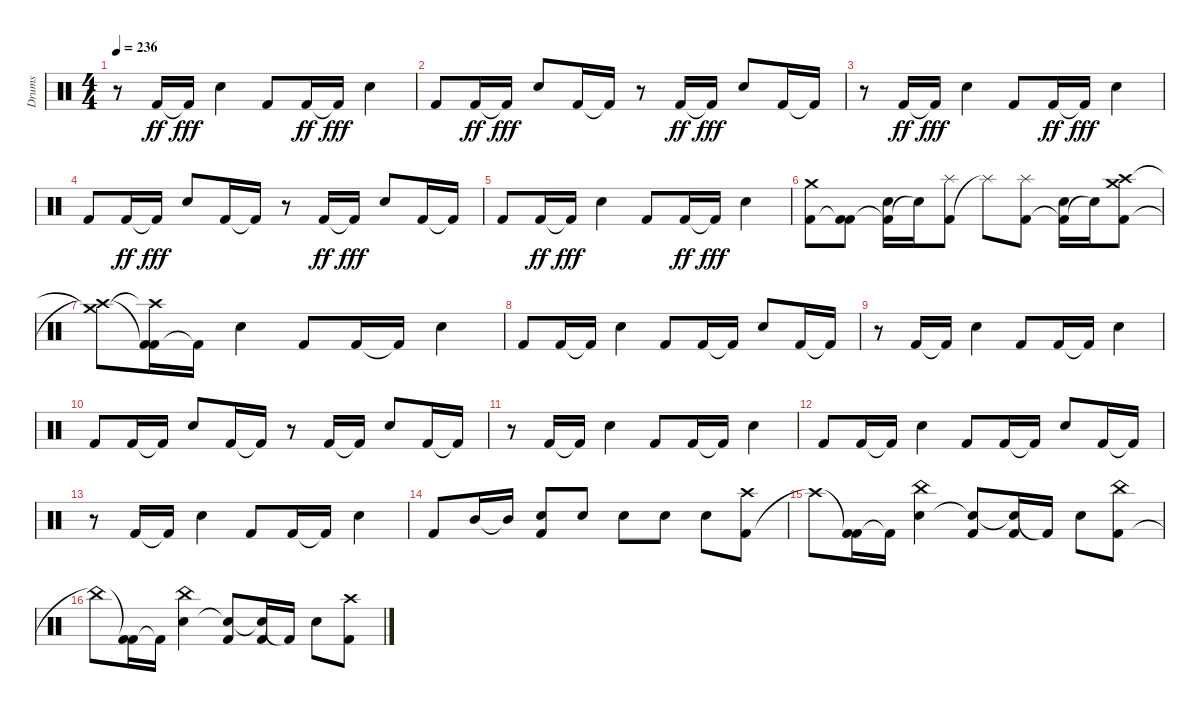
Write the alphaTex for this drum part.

\track ("Drums" "Drums") {instrument percussion}
\staff {score}
\articulation defaults
\ts (4 4)
\tempo 236
\clef neutral
\ks c
r.8{dy fff} "Kick (hit) 2".16{dy ff} "Kick (hit) 2"{t}.16{dy fff} "Snare (hit) 2".4 "Kick (hit) 2".8 "Kick (hit) 2".16{dy ff} "Kick (hit) 2"{t}.16{dy fff} "Snare (hit) 2".4 |
"Kick (hit) 2".8 "Kick (hit) 2".16{dy ff} "Kick (hit) 2"{t}.16{dy fff} "Snare (hit) 2".8 "Kick (hit) 2".16 "Kick (hit) 2"{t}.16 r.8 "Kick (hit) 2".16{dy ff} "Kick (hit) 2"{t}.16{dy fff} "Snare (hit) 2".8 "Kick (hit) 2".16 "Kick (hit) 2"{t}.16 |
r.8 "Kick (hit) 2".16{dy ff} "Kick (hit) 2"{t}.16{dy fff} "Snare (hit) 2".4 "Kick (hit) 2".8 "Kick (hit) 2".16{dy ff} "Kick (hit) 2"{t}.16{dy fff} "Snare (hit) 2".4 |
"Kick (hit) 2".8 "Kick (hit) 2".16{dy ff} "Kick (hit) 2"{t}.16{dy fff} "Snare (hit) 2".8 "Kick (hit) 2".16 "Kick (hit) 2"{t}.16 r.8 "Kick (hit) 2".16{dy ff} "Kick (hit) 2"{t}.16{dy fff} "Snare (hit) 2".8 "Kick (hit) 2".16 "Kick (hit) 2"{t}.16 |
"Kick (hit) 2".8 "Kick (hit) 2".16{dy ff} "Kick (hit) 2"{t}.16{dy fff} "Snare (hit) 2".4 "Kick (hit) 2".8 "Kick (hit) 2".16{dy ff} "Kick (hit) 2"{t}.16{dy fff} "Snare (hit) 2".4 |
("Kick (hit) 2" "Crash medium (hit)").8 ("Kick (hit) 2"{t} "Kick (hit) 2").8 ("Kick (hit) 2"{t} "Snare (hit) 2").16 "Snare (hit) 2"{t}.16 ("Kick (hit) 2" "Splash (hit)").8 "Splash (hit)"{t}.8 ("Kick (hit) 2" "Splash (hit)").8 ("Kick (hit) 2"{t} "Snare (hit) 2").16 "Snare (hit) 2"{t}.16 ("Kick (hit) 2" "Crash high (hit)" "Crash medium (hit)").8 |
("Crash high (hit)"{t} "Crash medium (hit)"{t}).8 ("Kick (hit) 2"{t} "Crash high (hit)"{t} "Kick (hit) 2").16 "Kick (hit) 2"{t}.16 "Snare (hit) 2".4 "Kick (hit) 2".8 "Kick (hit) 2".16 "Kick (hit) 2"{t}.16 "Snare (hit) 2".4 |
"Kick (hit) 2".8 "Kick (hit) 2".16 "Kick (hit) 2"{t}.16 "Snare (hit) 2".4 "Kick (hit) 2".8 "Kick (hit) 2".16 "Kick (hit) 2"{t}.16 "Snare (hit) 2".8 "Kick (hit) 2".16 "Kick (hit) 2"{t}.16 |
r.8 "Kick (hit) 2".16 "Kick (hit) 2"{t}.16 "Snare (hit) 2".4 "Kick (hit) 2".8 "Kick (hit) 2".16 "Kick (hit) 2"{t}.16 "Snare (hit) 2".4 |
"Kick (hit) 2".8 "Kick (hit) 2".16 "Kick (hit) 2"{t}.16 "Snare (hit) 2".8 "Kick (hit) 2".16 "Kick (hit) 2"{t}.16 r.8 "Kick (hit) 2".16 "Kick (hit) 2"{t}.16 "Snare (hit) 2".8 "Kick (hit) 2".16 "Kick (hit) 2"{t}.16 |
r.8 "Kick (hit) 2".16 "Kick (hit) 2"{t}.16 "Snare (hit) 2".4 "Kick (hit) 2".8 "Kick (hit) 2".16 "Kick (hit) 2"{t}.16 "Snare (hit) 2".4 |
"Kick (hit) 2".8 "Kick (hit) 2".16 "Kick (hit) 2"{t}.16 "Snare (hit) 2".4 "Kick (hit) 2".8 "Kick (hit) 2".16 "Kick (hit) 2"{t}.16 "Snare (hit) 2".8 "Kick (hit) 2".16 "Kick (hit) 2"{t}.16 |
r.8 "Kick (hit) 2".16 "Kick (hit) 2"{t}.16 "Snare (hit) 2".4 "Kick (hit) 2".8 "Kick (hit) 2".16 "Kick (hit) 2"{t}.16 "Snare (hit) 2".4 |
"Kick (hit) 2".8 "Mid Tom (hit)".16 "Mid Tom (hit)"{t}.16 ("Kick (hit) 2" "Snare (hit) 2").8 "Snare (hit) 2".8 "Snare (hit) 2".8 "Snare (hit) 2".8 "Snare (hit) 2".8 ("Kick (hit) 2" "Crash high (hit)").8 |
"Crash high (hit)"{t}.8 ("Kick (hit) 2"{t} "Kick (hit) 2").16 "Kick (hit) 2"{t}.16 ("Snare (hit) 2" "China (hit)").4 ("Snare (hit) 2"{t} "Kick (hit) 2").8 ("Snare (hit) 2"{t} "Kick (hit) 2").16 "Kick (hit) 2"{t}.16 "Snare (hit) 2".8 ("Kick (hit) 2" "China (hit)").8 |
"China (hit)"{t}.8 ("Kick (hit) 2"{t} "Kick (hit) 2").16 "Kick (hit) 2"{t}.16 ("Snare (hit) 2" "China (hit)").4 ("Snare (hit) 2"{t} "Kick (hit) 2").8 ("Snare (hit) 2"{t} "Kick (hit) 2").16 "Kick (hit) 2"{t}.16 "Snare (hit) 2".8 ("Kick (hit) 2" "Crash high (hit)").8
